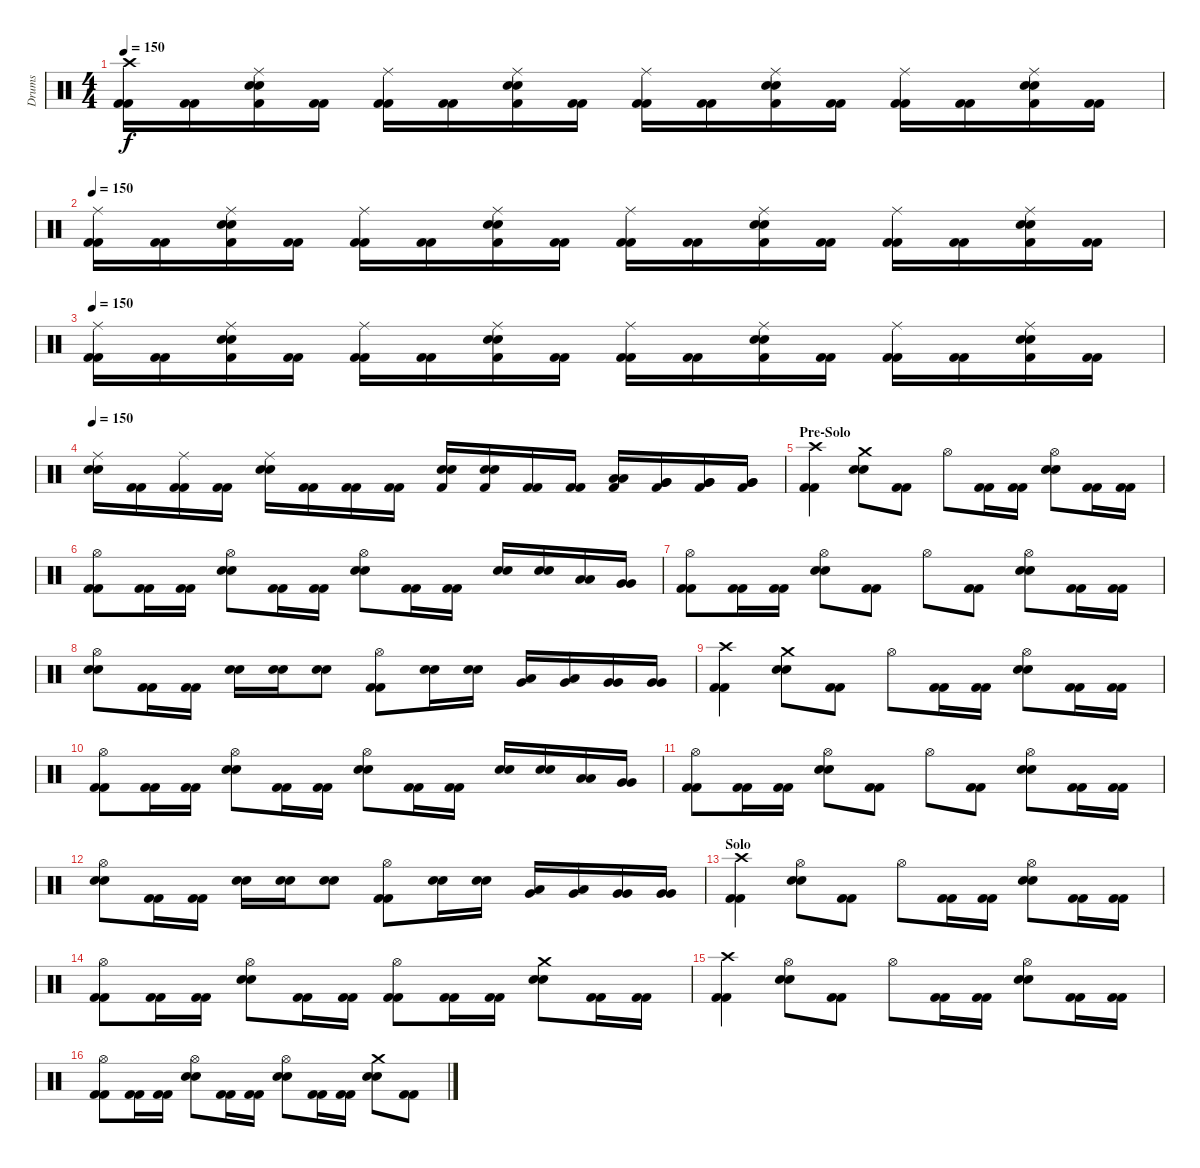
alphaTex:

\track ("Drums" "Drums") {instrument percussion}
\staff {score}
\articulation defaults
\ts (4 4)
\tempo 150
\clef neutral
\ks c
("Crash high (hit)" "Kick (hit) 2" "Kick (hit) 2").16{dy f} ("Kick (hit) 2" "Kick (hit) 2").16 ("Ride (middle)" "Snare (hit) 2" "Snare (hit) 2" "Kick (hit) 2").16 ("Kick (hit) 2" "Kick (hit) 2").16 ("Ride (middle)" "Kick (hit) 2" "Kick (hit) 2").16 ("Kick (hit) 2" "Kick (hit) 2").16 ("Ride (middle)" "Snare (hit) 2" "Snare (hit) 2" "Kick (hit) 2").16 ("Kick (hit) 2" "Kick (hit) 2").16 ("Ride (middle)" "Kick (hit) 2" "Kick (hit) 2").16 ("Kick (hit) 2" "Kick (hit) 2").16 ("Ride (middle)" "Snare (hit) 2" "Snare (hit) 2" "Kick (hit) 2").16 ("Kick (hit) 2" "Kick (hit) 2").16 ("Ride (middle)" "Kick (hit) 2" "Kick (hit) 2").16 ("Kick (hit) 2" "Kick (hit) 2").16 ("Ride (middle)" "Snare (hit) 2" "Snare (hit) 2" "Kick (hit) 2").16 ("Kick (hit) 2" "Kick (hit) 2").16 |
\tempo 150
("Ride (middle)" "Kick (hit) 2" "Kick (hit) 2").16 ("Kick (hit) 2" "Kick (hit) 2").16 ("Ride (middle)" "Snare (hit) 2" "Snare (hit) 2" "Kick (hit) 2").16 ("Kick (hit) 2" "Kick (hit) 2").16 ("Ride (middle)" "Kick (hit) 2" "Kick (hit) 2").16 ("Kick (hit) 2" "Kick (hit) 2").16 ("Ride (middle)" "Snare (hit) 2" "Snare (hit) 2" "Kick (hit) 2").16 ("Kick (hit) 2" "Kick (hit) 2").16 ("Ride (middle)" "Kick (hit) 2" "Kick (hit) 2").16 ("Kick (hit) 2" "Kick (hit) 2").16 ("Ride (middle)" "Snare (hit) 2" "Snare (hit) 2" "Kick (hit) 2").16 ("Kick (hit) 2" "Kick (hit) 2").16 ("Ride (middle)" "Kick (hit) 2" "Kick (hit) 2").16 ("Kick (hit) 2" "Kick (hit) 2").16 ("Ride (middle)" "Snare (hit) 2" "Snare (hit) 2" "Kick (hit) 2").16 ("Kick (hit) 2" "Kick (hit) 2").16 |
\tempo 150
("Ride (middle)" "Kick (hit) 2" "Kick (hit) 2").16 ("Kick (hit) 2" "Kick (hit) 2").16 ("Ride (middle)" "Snare (hit) 2" "Snare (hit) 2" "Kick (hit) 2").16 ("Kick (hit) 2" "Kick (hit) 2").16 ("Ride (middle)" "Kick (hit) 2" "Kick (hit) 2").16 ("Kick (hit) 2" "Kick (hit) 2").16 ("Ride (middle)" "Snare (hit) 2" "Snare (hit) 2" "Kick (hit) 2").16 ("Kick (hit) 2" "Kick (hit) 2").16 ("Ride (middle)" "Kick (hit) 2" "Kick (hit) 2").16 ("Kick (hit) 2" "Kick (hit) 2").16 ("Ride (middle)" "Snare (hit) 2" "Snare (hit) 2" "Kick (hit) 2").16 ("Kick (hit) 2" "Kick (hit) 2").16 ("Ride (middle)" "Kick (hit) 2" "Kick (hit) 2").16 ("Kick (hit) 2" "Kick (hit) 2").16 ("Ride (middle)" "Snare (hit) 2" "Snare (hit) 2" "Kick (hit) 2").16 ("Kick (hit) 2" "Kick (hit) 2").16 |
\tempo 150
("Ride (middle)" "Snare (hit) 2" "Snare (hit) 2").16 ("Kick (hit) 2" "Kick (hit) 2").16 ("Ride (middle)" "Kick (hit) 2" "Kick (hit) 2").16 ("Kick (hit) 2" "Kick (hit) 2").16 ("Ride (middle)" "Snare (hit) 2" "Snare (hit) 2").16 ("Kick (hit) 2" "Kick (hit) 2").16 ("Kick (hit) 2" "Kick (hit) 2").16 ("Kick (hit) 2" "Kick (hit) 2").16 ("Snare (hit) 2" "Snare (hit) 2" "Kick (hit) 2").16 ("Snare (hit) 2" "Snare (hit) 2" "Kick (hit) 2").16 ("Kick (hit) 2" "Kick (hit) 2").16 ("Kick (hit) 2" "Kick (hit) 2").16 ("Low Tom (hit)" "Low Tom (hit)" "Kick (hit) 2").16 ("Very Low Tom (hit)" "Very Low Tom (hit)" "Kick (hit) 2").16 ("Very Low Tom (hit)" "Very Low Tom (hit)" "Kick (hit) 2").16 ("Very Low Tom (hit)" "Very Low Tom (hit)" "Kick (hit) 2").16 |
\section ("" "Pre-Solo")
("Crash high (hit)" "Kick (hit) 2" "Kick (hit) 2").4 ("Crash medium (hit)" "Snare (hit) 2" "Snare (hit) 2").8 ("Kick (hit) 2" "Kick (hit) 2").8 "Hi-Hat (open)".8 ("Kick (hit) 2" "Kick (hit) 2").16 ("Kick (hit) 2" "Kick (hit) 2").16 ("Hi-Hat (open)" "Snare (hit) 2" "Snare (hit) 2").8 ("Kick (hit) 2" "Kick (hit) 2").16 ("Kick (hit) 2" "Kick (hit) 2").16 |
("Hi-Hat (open)" "Kick (hit) 2" "Kick (hit) 2").8 ("Kick (hit) 2" "Kick (hit) 2").16 ("Kick (hit) 2" "Kick (hit) 2").16 ("Hi-Hat (open)" "Snare (hit) 2" "Snare (hit) 2").8 ("Kick (hit) 2" "Kick (hit) 2").16 ("Kick (hit) 2" "Kick (hit) 2").16 ("Hi-Hat (open)" "Snare (hit) 2" "Snare (hit) 2").8 ("Kick (hit) 2" "Kick (hit) 2").16 ("Kick (hit) 2" "Kick (hit) 2").16 ("Snare (hit) 2" "Snare (hit) 2").16 ("Snare (hit) 2" "Snare (hit) 2").16 ("Low Tom (hit)" "Low Tom (hit)").16 ("Very Low Tom (hit)" "Very Low Tom (hit)").16 |
("Hi-Hat (open)" "Kick (hit) 2" "Kick (hit) 2").8 ("Kick (hit) 2" "Kick (hit) 2").16 ("Kick (hit) 2" "Kick (hit) 2").16 ("Hi-Hat (open)" "Snare (hit) 2" "Snare (hit) 2").8 ("Kick (hit) 2" "Kick (hit) 2").8 "Hi-Hat (open)".8 ("Kick (hit) 2" "Kick (hit) 2").8 ("Hi-Hat (open)" "Snare (hit) 2" "Snare (hit) 2").8 ("Kick (hit) 2" "Kick (hit) 2").16 ("Kick (hit) 2" "Kick (hit) 2").16 |
("Hi-Hat (open)" "Snare (hit) 2" "Snare (hit) 2").8 ("Kick (hit) 2" "Kick (hit) 2").16 ("Kick (hit) 2" "Kick (hit) 2").16 ("Snare (hit) 2" "Snare (hit) 2").16 ("Snare (hit) 2" "Snare (hit) 2").16 ("Snare (hit) 2" "Snare (hit) 2").8 ("Hi-Hat (open)" "Kick (hit) 2" "Kick (hit) 2").8 ("Snare (hit) 2" "Snare (hit) 2").16 ("Snare (hit) 2" "Snare (hit) 2").16 ("Low Tom (hit)" "Very Low Tom (hit)").16 ("Low Tom (hit)" "Very Low Tom (hit)").16 ("Very Low Tom (hit)" "Very Low Tom (hit)").16 ("Very Low Tom (hit)" "Very Low Tom (hit)").16 |
("Crash high (hit)" "Kick (hit) 2" "Kick (hit) 2").4 ("Crash medium (hit)" "Snare (hit) 2" "Snare (hit) 2").8 ("Kick (hit) 2" "Kick (hit) 2").8 "Hi-Hat (open)".8 ("Kick (hit) 2" "Kick (hit) 2").16 ("Kick (hit) 2" "Kick (hit) 2").16 ("Hi-Hat (open)" "Snare (hit) 2" "Snare (hit) 2").8 ("Kick (hit) 2" "Kick (hit) 2").16 ("Kick (hit) 2" "Kick (hit) 2").16 |
("Hi-Hat (open)" "Kick (hit) 2" "Kick (hit) 2").8 ("Kick (hit) 2" "Kick (hit) 2").16 ("Kick (hit) 2" "Kick (hit) 2").16 ("Hi-Hat (open)" "Snare (hit) 2" "Snare (hit) 2").8 ("Kick (hit) 2" "Kick (hit) 2").16 ("Kick (hit) 2" "Kick (hit) 2").16 ("Hi-Hat (open)" "Snare (hit) 2" "Snare (hit) 2").8 ("Kick (hit) 2" "Kick (hit) 2").16 ("Kick (hit) 2" "Kick (hit) 2").16 ("Snare (hit) 2" "Snare (hit) 2").16 ("Snare (hit) 2" "Snare (hit) 2").16 ("Low Tom (hit)" "Low Tom (hit)").16 ("Very Low Tom (hit)" "Very Low Tom (hit)").16 |
("Hi-Hat (open)" "Kick (hit) 2" "Kick (hit) 2").8 ("Kick (hit) 2" "Kick (hit) 2").16 ("Kick (hit) 2" "Kick (hit) 2").16 ("Hi-Hat (open)" "Snare (hit) 2" "Snare (hit) 2").8 ("Kick (hit) 2" "Kick (hit) 2").8 "Hi-Hat (open)".8 ("Kick (hit) 2" "Kick (hit) 2").8 ("Hi-Hat (open)" "Snare (hit) 2" "Snare (hit) 2").8 ("Kick (hit) 2" "Kick (hit) 2").16 ("Kick (hit) 2" "Kick (hit) 2").16 |
("Hi-Hat (open)" "Snare (hit) 2" "Snare (hit) 2").8 ("Kick (hit) 2" "Kick (hit) 2").16 ("Kick (hit) 2" "Kick (hit) 2").16 ("Snare (hit) 2" "Snare (hit) 2").16 ("Snare (hit) 2" "Snare (hit) 2").16 ("Snare (hit) 2" "Snare (hit) 2").8 ("Hi-Hat (open)" "Kick (hit) 2" "Kick (hit) 2").8 ("Snare (hit) 2" "Snare (hit) 2").16 ("Snare (hit) 2" "Snare (hit) 2").16 ("Low Tom (hit)" "Very Low Tom (hit)").16 ("Low Tom (hit)" "Very Low Tom (hit)").16 ("Very Low Tom (hit)" "Very Low Tom (hit)").16 ("Very Low Tom (hit)" "Very Low Tom (hit)").16 |
\section ("" "Solo")
("Crash high (hit)" "Kick (hit) 2" "Kick (hit) 2").4 ("Hi-Hat (open)" "Snare (hit) 2" "Snare (hit) 2").8 ("Kick (hit) 2" "Kick (hit) 2").8 "Hi-Hat (open)".8 ("Kick (hit) 2" "Kick (hit) 2").16 ("Kick (hit) 2" "Kick (hit) 2").16 ("Hi-Hat (open)" "Snare (hit) 2" "Snare (hit) 2").8 ("Kick (hit) 2" "Kick (hit) 2").16 ("Kick (hit) 2" "Kick (hit) 2").16 |
("Hi-Hat (open)" "Kick (hit) 2" "Kick (hit) 2").8 ("Kick (hit) 2" "Kick (hit) 2").16 ("Kick (hit) 2" "Kick (hit) 2").16 ("Hi-Hat (open)" "Snare (hit) 2" "Snare (hit) 2").8 ("Kick (hit) 2" "Kick (hit) 2").16 ("Kick (hit) 2" "Kick (hit) 2").16 ("Hi-Hat (open)" "Kick (hit) 2" "Kick (hit) 2").8 ("Kick (hit) 2" "Kick (hit) 2").16 ("Kick (hit) 2" "Kick (hit) 2").16 ("Crash medium (hit)" "Snare (hit) 2" "Snare (hit) 2").8 ("Kick (hit) 2" "Kick (hit) 2").16 ("Kick (hit) 2" "Kick (hit) 2").16 |
("Crash high (hit)" "Kick (hit) 2" "Kick (hit) 2").4 ("Hi-Hat (open)" "Snare (hit) 2" "Snare (hit) 2").8 ("Kick (hit) 2" "Kick (hit) 2").8 "Hi-Hat (open)".8 ("Kick (hit) 2" "Kick (hit) 2").16 ("Kick (hit) 2" "Kick (hit) 2").16 ("Hi-Hat (open)" "Snare (hit) 2" "Snare (hit) 2").8 ("Kick (hit) 2" "Kick (hit) 2").16 ("Kick (hit) 2" "Kick (hit) 2").16 |
("Hi-Hat (open)" "Kick (hit) 2" "Kick (hit) 2").8 ("Kick (hit) 2" "Kick (hit) 2").16 ("Kick (hit) 2" "Kick (hit) 2").16 ("Hi-Hat (open)" "Snare (hit) 2" "Snare (hit) 2").8 ("Kick (hit) 2" "Kick (hit) 2").16 ("Kick (hit) 2" "Kick (hit) 2").16 ("Hi-Hat (open)" "Snare (hit) 2" "Snare (hit) 2").8 ("Kick (hit) 2" "Kick (hit) 2").16 ("Kick (hit) 2" "Kick (hit) 2").16 ("Crash medium (hit)" "Snare (hit) 2" "Snare (hit) 2").8 ("Kick (hit) 2" "Kick (hit) 2").8
